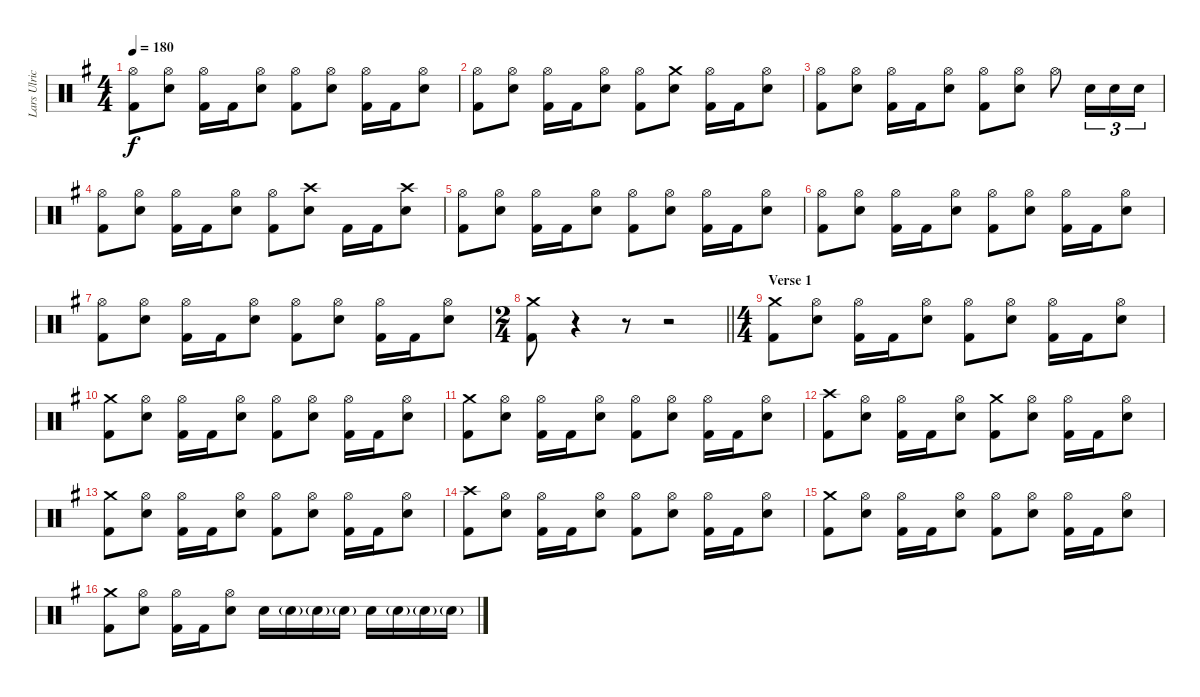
\track ("Lars Ulrich" "Lars Ulric") {instrument percussion}
\staff {score}
\articulation defaults
\ts (4 4)
\tempo 180
\clef neutral
\ks eminor
("Hi-Hat (open)" "Kick (hit) 2").8{dy f} ("Hi-Hat (open)" "Snare (hit) 2").8 ("Hi-Hat (open)" "Kick (hit) 2").16 "Kick (hit) 2".16 ("Hi-Hat (open)" "Snare (hit) 2").8 ("Hi-Hat (open)" "Kick (hit) 2").8 ("Hi-Hat (open)" "Snare (hit) 2").8 ("Hi-Hat (open)" "Kick (hit) 2").16 "Kick (hit) 2".16 ("Hi-Hat (open)" "Snare (hit) 2").8 |
("Hi-Hat (open)" "Kick (hit) 2").8 ("Hi-Hat (open)" "Snare (hit) 2").8 ("Hi-Hat (open)" "Kick (hit) 2").16 "Kick (hit) 2".16 ("Hi-Hat (open)" "Snare (hit) 2").8 ("Hi-Hat (open)" "Kick (hit) 2").8 ("Crash medium (hit)" "Snare (hit) 2").8 ("Hi-Hat (open)" "Kick (hit) 2").16 "Kick (hit) 2".16 ("Hi-Hat (open)" "Snare (hit) 2").8 |
("Hi-Hat (open)" "Kick (hit) 2").8 ("Hi-Hat (open)" "Snare (hit) 2").8 ("Hi-Hat (open)" "Kick (hit) 2").16 "Kick (hit) 2".16 ("Hi-Hat (open)" "Snare (hit) 2").8 ("Hi-Hat (open)" "Kick (hit) 2").8 ("Hi-Hat (open)" "Snare (hit) 2").8 "Hi-Hat (open)".8 "Snare (hit) 2".16{tu (3 2)} "Snare (hit) 2".16{tu (3 2)} "Snare (hit) 2".16{tu (3 2)} |
("Hi-Hat (open)" "Kick (hit) 2").8 ("Hi-Hat (open)" "Snare (hit) 2").8 ("Hi-Hat (open)" "Kick (hit) 2").16 "Kick (hit) 2".16 ("Hi-Hat (open)" "Snare (hit) 2").8 ("Hi-Hat (open)" "Kick (hit) 2").8 ("Crash high (hit)" "Snare (hit) 2").8 "Kick (hit) 2".16 "Kick (hit) 2".16 ("Crash high (hit)" "Snare (hit) 2").8 |
("Hi-Hat (open)" "Kick (hit) 2").8 ("Hi-Hat (open)" "Snare (hit) 2").8 ("Hi-Hat (open)" "Kick (hit) 2").16 "Kick (hit) 2".16 ("Hi-Hat (open)" "Snare (hit) 2").8 ("Hi-Hat (open)" "Kick (hit) 2").8 ("Hi-Hat (open)" "Snare (hit) 2").8 ("Hi-Hat (open)" "Kick (hit) 2").16 "Kick (hit) 2".16 ("Hi-Hat (open)" "Snare (hit) 2").8 |
("Hi-Hat (open)" "Kick (hit) 2").8 ("Hi-Hat (open)" "Snare (hit) 2").8 ("Hi-Hat (open)" "Kick (hit) 2").16 "Kick (hit) 2".16 ("Hi-Hat (open)" "Snare (hit) 2").8 ("Hi-Hat (open)" "Kick (hit) 2").8 ("Hi-Hat (open)" "Snare (hit) 2").8 ("Hi-Hat (open)" "Kick (hit) 2").16 "Kick (hit) 2".16 ("Hi-Hat (open)" "Snare (hit) 2").8 |
("Hi-Hat (open)" "Kick (hit) 2").8 ("Hi-Hat (open)" "Snare (hit) 2").8 ("Hi-Hat (open)" "Kick (hit) 2").16 "Kick (hit) 2".16 ("Hi-Hat (open)" "Snare (hit) 2").8 ("Hi-Hat (open)" "Kick (hit) 2").8 ("Hi-Hat (open)" "Snare (hit) 2").8 ("Hi-Hat (open)" "Kick (hit) 2").16 "Kick (hit) 2".16 ("Hi-Hat (open)" "Snare (hit) 2").8 |
\ts (2 4)
\barLineRight lightlight
("Crash medium (hit)" "Kick (hit) 2").8 r.4 r.8 r.2 |
\ts (4 4)
\section ("" "Verse 1")
("Crash medium (hit)" "Kick (hit) 2").8 ("Hi-Hat (open)" "Snare (hit) 2").8 ("Hi-Hat (open)" "Kick (hit) 2").16 "Kick (hit) 2".16 ("Hi-Hat (open)" "Snare (hit) 2").8 ("Hi-Hat (open)" "Kick (hit) 2").8 ("Hi-Hat (open)" "Snare (hit) 2").8 ("Hi-Hat (open)" "Kick (hit) 2").16 "Kick (hit) 2".16 ("Hi-Hat (open)" "Snare (hit) 2").8 |
("Crash medium (hit)" "Kick (hit) 2").8 ("Hi-Hat (open)" "Snare (hit) 2").8 ("Hi-Hat (open)" "Kick (hit) 2").16 "Kick (hit) 2".16 ("Hi-Hat (open)" "Snare (hit) 2").8 ("Hi-Hat (open)" "Kick (hit) 2").8 ("Hi-Hat (open)" "Snare (hit) 2").8 ("Hi-Hat (open)" "Kick (hit) 2").16 "Kick (hit) 2".16 ("Hi-Hat (open)" "Snare (hit) 2").8 |
("Crash medium (hit)" "Kick (hit) 2").8 ("Hi-Hat (open)" "Snare (hit) 2").8 ("Hi-Hat (open)" "Kick (hit) 2").16 "Kick (hit) 2".16 ("Hi-Hat (open)" "Snare (hit) 2").8 ("Hi-Hat (open)" "Kick (hit) 2").8 ("Hi-Hat (open)" "Snare (hit) 2").8 ("Hi-Hat (open)" "Kick (hit) 2").16 "Kick (hit) 2".16 ("Hi-Hat (open)" "Snare (hit) 2").8 |
("Crash high (hit)" "Kick (hit) 2").8 ("Hi-Hat (open)" "Snare (hit) 2").8 ("Hi-Hat (open)" "Kick (hit) 2").16 "Kick (hit) 2".16 ("Hi-Hat (open)" "Snare (hit) 2").8 ("Crash medium (hit)" "Kick (hit) 2").8 ("Hi-Hat (open)" "Snare (hit) 2").8 ("Hi-Hat (open)" "Kick (hit) 2").16 "Kick (hit) 2".16 ("Hi-Hat (open)" "Snare (hit) 2").8 |
("Crash medium (hit)" "Kick (hit) 2").8 ("Hi-Hat (open)" "Snare (hit) 2").8 ("Hi-Hat (open)" "Kick (hit) 2").16 "Kick (hit) 2".16 ("Hi-Hat (open)" "Snare (hit) 2").8 ("Hi-Hat (open)" "Kick (hit) 2").8 ("Hi-Hat (open)" "Snare (hit) 2").8 ("Hi-Hat (open)" "Kick (hit) 2").16 "Kick (hit) 2".16 ("Hi-Hat (open)" "Snare (hit) 2").8 |
("Crash high (hit)" "Kick (hit) 2").8 ("Hi-Hat (open)" "Snare (hit) 2").8 ("Hi-Hat (open)" "Kick (hit) 2").16 "Kick (hit) 2".16 ("Hi-Hat (open)" "Snare (hit) 2").8 ("Hi-Hat (open)" "Kick (hit) 2").8 ("Hi-Hat (open)" "Snare (hit) 2").8 ("Hi-Hat (open)" "Kick (hit) 2").16 "Kick (hit) 2".16 ("Hi-Hat (open)" "Snare (hit) 2").8 |
("Crash medium (hit)" "Kick (hit) 2").8 ("Hi-Hat (open)" "Snare (hit) 2").8 ("Hi-Hat (open)" "Kick (hit) 2").16 "Kick (hit) 2".16 ("Hi-Hat (open)" "Snare (hit) 2").8 ("Hi-Hat (open)" "Kick (hit) 2").8 ("Hi-Hat (open)" "Snare (hit) 2").8 ("Hi-Hat (open)" "Kick (hit) 2").16 "Kick (hit) 2".16 ("Hi-Hat (open)" "Snare (hit) 2").8 |
("Crash medium (hit)" "Kick (hit) 2").8 ("Hi-Hat (open)" "Snare (hit) 2").8 ("Hi-Hat (open)" "Kick (hit) 2").16 "Kick (hit) 2".16 ("Hi-Hat (open)" "Snare (hit) 2").8 "Snare (hit) 2".16 "Snare (hit) 2"{g}.16 "Snare (hit) 2"{g}.16 "Snare (hit) 2"{g}.16 "Snare (hit) 2".16 "Snare (hit) 2"{g}.16 "Snare (hit) 2"{g}.16 "Snare (hit) 2"{g}.16
